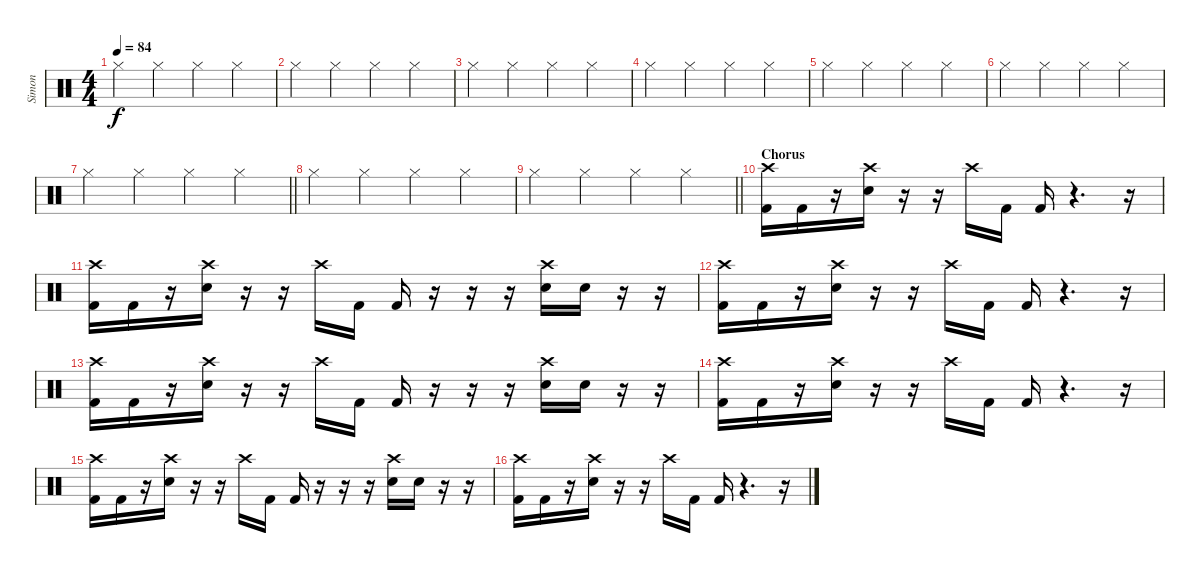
\track ("Simon" "Simon") {instrument percussion}
\staff {score}
\articulation defaults
\ts (4 4)
\tempo 84
\clef neutral
\ks c "Hi-Hat (closed)".4{dy f} "Hi-Hat (closed)".4 "Hi-Hat (closed)".4 "Hi-Hat (closed)".4
|
"Hi-Hat (closed)".4 "Hi-Hat (closed)".4 "Hi-Hat (closed)".4 "Hi-Hat (closed)".4 |
"Hi-Hat (closed)".4 "Hi-Hat (closed)".4 "Hi-Hat (closed)".4 "Hi-Hat (closed)".4 |
"Hi-Hat (closed)".4 "Hi-Hat (closed)".4 "Hi-Hat (closed)".4 "Hi-Hat (closed)".4 |
"Hi-Hat (closed)".4 "Hi-Hat (closed)".4 "Hi-Hat (closed)".4 "Hi-Hat (closed)".4 |
"Hi-Hat (closed)".4 "Hi-Hat (closed)".4 "Hi-Hat (closed)".4 "Hi-Hat (closed)".4 |
\barLineRight lightlight "Hi-Hat (closed)".4 "Hi-Hat (closed)".4 "Hi-Hat (closed)".4 "Hi-Hat (closed)".4
|
"Hi-Hat (closed)".4 "Hi-Hat (closed)".4 "Hi-Hat (closed)".4 "Hi-Hat (closed)".4 |
\barLineRight lightlight "Hi-Hat (closed)".4 "Hi-Hat (closed)".4 "Hi-Hat (closed)".4 "Hi-Hat (closed)".4
|
\section ("" "Chorus")
("Kick (hit) 2" "Crash high (hit)").16 "Kick (hit) 2".16 r.16 ("Snare (hit) 2" "Crash high (hit)").16 r.16 r.16 "Crash high (hit)".16 "Kick (hit) 2".16 "Kick (hit) 2".16 r.4{d} r.16 |
("Kick (hit) 2" "Crash high (hit)").16 "Kick (hit) 2".16 r.16 ("Snare (hit) 2" "Crash high (hit)").16 r.16 r.16 "Crash high (hit)".16 "Kick (hit) 2".16 "Kick (hit) 2".16 r.16 r.16 r.16 ("Snare (hit) 2" "Crash high (hit)").16 "Snare (hit) 2".16 r.16 r.16 |
("Kick (hit) 2" "Crash high (hit)").16 "Kick (hit) 2".16 r.16 ("Snare (hit) 2" "Crash high (hit)").16 r.16 r.16 "Crash high (hit)".16 "Kick (hit) 2".16 "Kick (hit) 2".16 r.4{d} r.16 |
("Kick (hit) 2" "Crash high (hit)").16 "Kick (hit) 2".16 r.16 ("Snare (hit) 2" "Crash high (hit)").16 r.16 r.16 "Crash high (hit)".16 "Kick (hit) 2".16 "Kick (hit) 2".16 r.16 r.16 r.16 ("Snare (hit) 2" "Crash high (hit)").16 "Snare (hit) 2".16 r.16 r.16 |
("Kick (hit) 2" "Crash high (hit)").16 "Kick (hit) 2".16 r.16 ("Snare (hit) 2" "Crash high (hit)").16 r.16 r.16 "Crash high (hit)".16 "Kick (hit) 2".16 "Kick (hit) 2".16 r.4{d} r.16 |
("Kick (hit) 2" "Crash high (hit)").16 "Kick (hit) 2".16 r.16 ("Snare (hit) 2" "Crash high (hit)").16 r.16 r.16 "Crash high (hit)".16 "Kick (hit) 2".16 "Kick (hit) 2".16 r.16 r.16 r.16 ("Snare (hit) 2" "Crash high (hit)").16 "Snare (hit) 2".16 r.16 r.16 |
("Kick (hit) 2" "Crash high (hit)").16 "Kick (hit) 2".16 r.16 ("Snare (hit) 2" "Crash high (hit)").16 r.16 r.16 "Crash high (hit)".16 "Kick (hit) 2".16 "Kick (hit) 2".16 r.4{d} r.16
